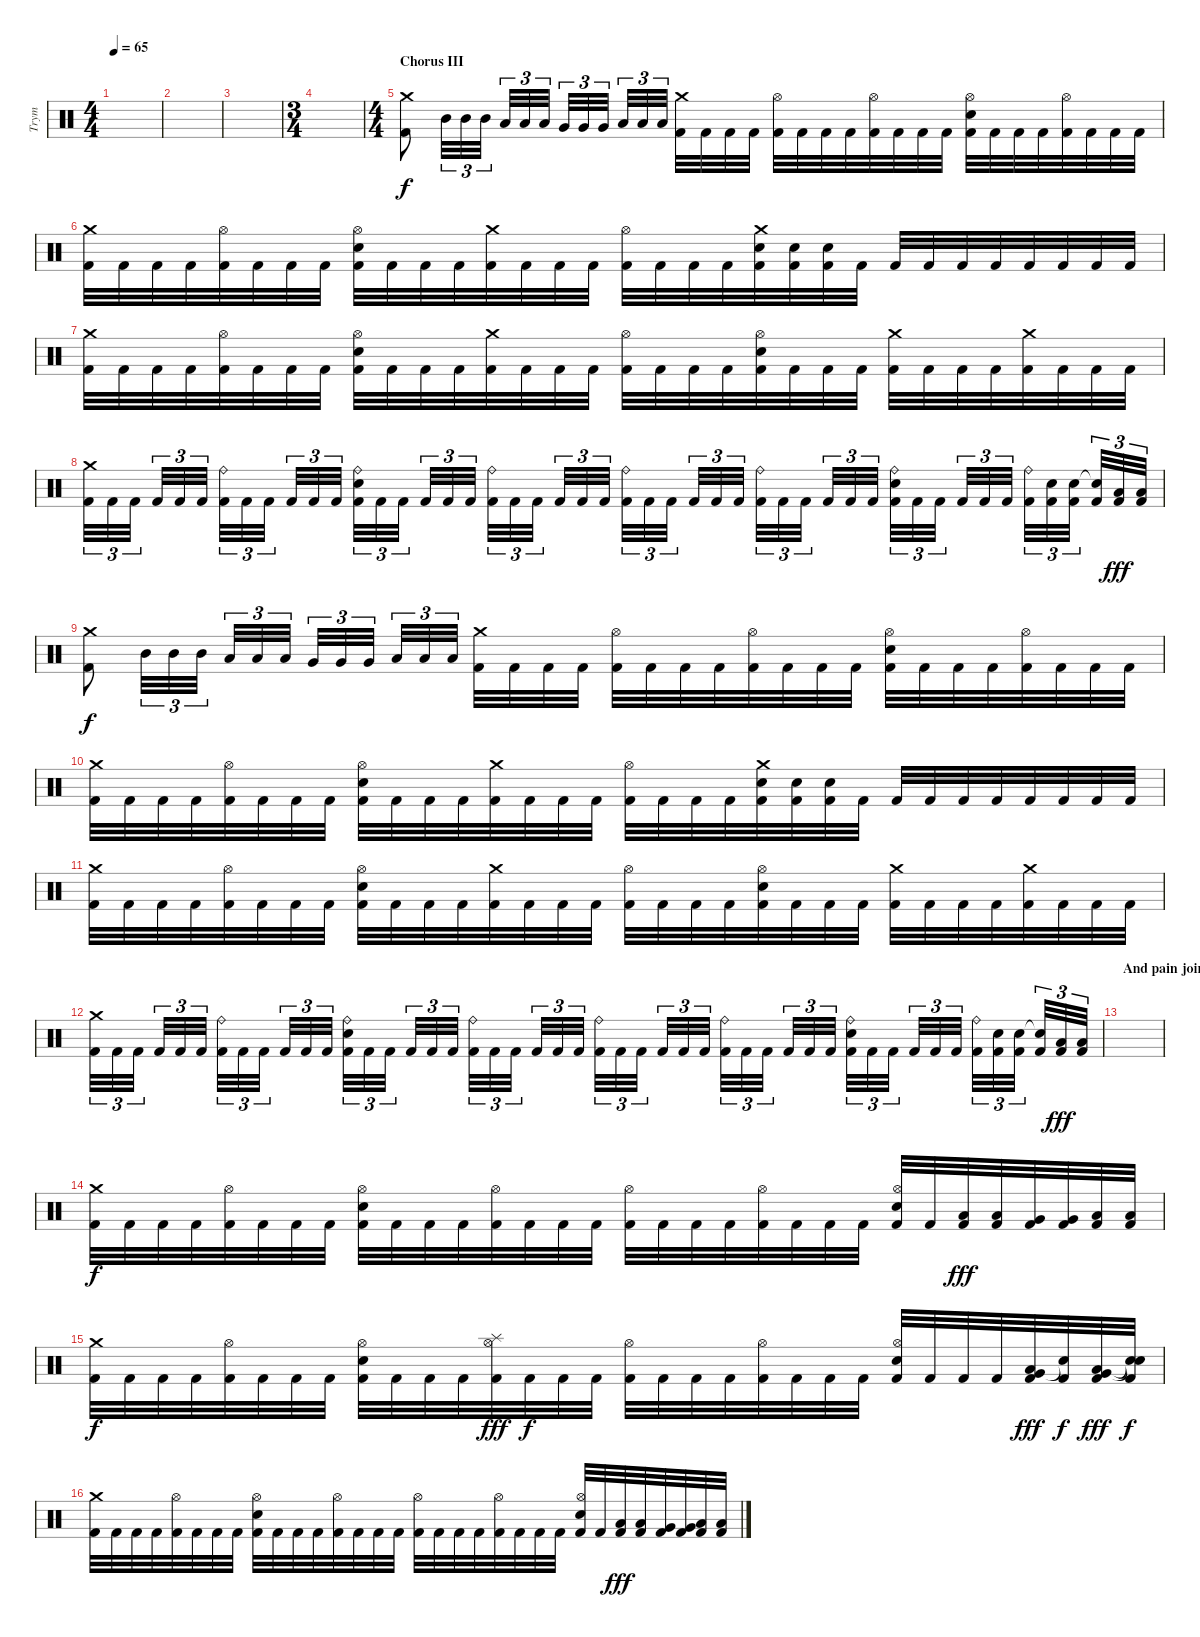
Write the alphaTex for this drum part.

\track ("Trym" "Trym") {instrument percussion}
\staff {score}
\articulation defaults
\ts (4 4)
\tempo 65
\clef neutral
\ks c
|
|
|
\ts (3 4)
|
\ts (4 4)
\section ("" "Chorus III")
("Crash medium (hit)" "Kick (hit) 2").8 "Mid Tom (hit)".32{tu (3 2)} "Mid Tom (hit)".32{tu (3 2)} "Mid Tom (hit)".32{tu (3 2)} "Low Tom (hit)".32{tu (3 2)} "Low Tom (hit)".32{tu (3 2)} "Low Tom (hit)".32{tu (3 2)} "Very Low Tom (hit)".32{tu (3 2)} "Very Low Tom (hit)".32{tu (3 2)} "Very Low Tom (hit)".32{tu (3 2)} "Low Floor Tom (hit)".32{tu (3 2)} "Low Floor Tom (hit)".32{tu (3 2)} "Low Floor Tom (hit)".32{tu (3 2)} ("Crash medium (hit)" "Kick (hit) 2").32 "Kick (hit) 2".32 "Kick (hit) 2".32 "Kick (hit) 2".32 ("Hi-Hat (open)" "Kick (hit) 2").32 "Kick (hit) 2".32 "Kick (hit) 2".32 "Kick (hit) 2".32 ("Hi-Hat (open)" "Kick (hit) 2").32 "Kick (hit) 2".32 "Kick (hit) 2".32 "Kick (hit) 2".32 ("Hi-Hat (open)" "Electric Snare (hit)" "Kick (hit) 2").32 "Kick (hit) 2".32 "Kick (hit) 2".32 "Kick (hit) 2".32 ("Hi-Hat (open)" "Kick (hit) 2").32 "Kick (hit) 2".32 "Kick (hit) 2".32 "Kick (hit) 2".32 |
("Crash medium (hit)" "Kick (hit) 2").32 "Kick (hit) 2".32 "Kick (hit) 2".32 "Kick (hit) 2".32 ("Hi-Hat (open)" "Kick (hit) 2").32 "Kick (hit) 2".32 "Kick (hit) 2".32 "Kick (hit) 2".32 ("Hi-Hat (open)" "Electric Snare (hit)" "Kick (hit) 2").32 "Kick (hit) 2".32 "Kick (hit) 2".32 "Kick (hit) 2".32 ("Crash medium (hit)" "Kick (hit) 2").32 "Kick (hit) 2".32 "Kick (hit) 2".32 "Kick (hit) 2".32 ("Hi-Hat (open)" "Kick (hit) 2").32 "Kick (hit) 2".32 "Kick (hit) 2".32 "Kick (hit) 2".32 ("Crash medium (hit)" "Electric Snare (hit)" "Kick (hit) 2").32 ("Electric Snare (hit)" "Kick (hit) 2").32 ("Electric Snare (hit)" "Kick (hit) 2").32 "Kick (hit) 2".32 "Kick (hit) 2".32 "Kick (hit) 2".32 "Kick (hit) 2".32 "Kick (hit) 2".32 "Kick (hit) 2".32 "Kick (hit) 2".32 "Kick (hit) 2".32 "Kick (hit) 2".32 |
("Crash medium (hit)" "Kick (hit) 2").32 "Kick (hit) 2".32 "Kick (hit) 2".32 "Kick (hit) 2".32 ("Hi-Hat (open)" "Kick (hit) 2").32 "Kick (hit) 2".32 "Kick (hit) 2".32 "Kick (hit) 2".32 ("Hi-Hat (open)" "Electric Snare (hit)" "Kick (hit) 2").32 "Kick (hit) 2".32 "Kick (hit) 2".32 "Kick (hit) 2".32 ("Crash medium (hit)" "Kick (hit) 2").32 "Kick (hit) 2".32 "Kick (hit) 2".32 "Kick (hit) 2".32 ("Hi-Hat (open)" "Kick (hit) 2").32 "Kick (hit) 2".32 "Kick (hit) 2".32 "Kick (hit) 2".32 ("Hi-Hat (open)" "Electric Snare (hit)" "Kick (hit) 2").32 "Kick (hit) 2".32 "Kick (hit) 2".32 "Kick (hit) 2".32 ("Crash medium (hit)" "Kick (hit) 2").32 "Kick (hit) 2".32 "Kick (hit) 2".32 "Kick (hit) 2".32 ("Crash medium (hit)" "Kick (hit) 2").32 "Kick (hit) 2".32 "Kick (hit) 2".32 "Kick (hit) 2".32 |
("Crash medium (hit)" "Kick (hit) 2").32{tu (3 2)} "Kick (hit) 2".32{tu (3 2)} "Kick (hit) 2".32{tu (3 2)} "Kick (hit) 2".32{tu (3 2)} "Kick (hit) 2".32{tu (3 2)} "Kick (hit) 2".32{tu (3 2)} ("Ride (bell)" "Kick (hit) 2").32{tu (3 2)} "Kick (hit) 2".32{tu (3 2)} "Kick (hit) 2".32{tu (3 2)} "Kick (hit) 2".32{tu (3 2)} "Kick (hit) 2".32{tu (3 2)} "Kick (hit) 2".32{tu (3 2)} ("Ride (bell)" "Electric Snare (hit)" "Kick (hit) 2").32{tu (3 2)} "Kick (hit) 2".32{tu (3 2)} "Kick (hit) 2".32{tu (3 2)} "Kick (hit) 2".32{tu (3 2)} "Kick (hit) 2".32{tu (3 2)} "Kick (hit) 2".32{tu (3 2)} ("Ride (bell)" "Kick (hit) 2").32{tu (3 2)} "Kick (hit) 2".32{tu (3 2)} "Kick (hit) 2".32{tu (3 2)} "Kick (hit) 2".32{tu (3 2)} "Kick (hit) 2".32{tu (3 2)} "Kick (hit) 2".32{tu (3 2)} ("Ride (bell)" "Kick (hit) 2").32{tu (3 2)} "Kick (hit) 2".32{tu (3 2)} "Kick (hit) 2".32{tu (3 2)} "Kick (hit) 2".32{tu (3 2)} "Kick (hit) 2".32{tu (3 2)} "Kick (hit) 2".32{tu (3 2)} ("Ride (bell)" "Kick (hit) 2").32{tu (3 2)} "Kick (hit) 2".32{tu (3 2)} "Kick (hit) 2".32{tu (3 2)} "Kick (hit) 2".32{tu (3 2)} "Kick (hit) 2".32{tu (3 2)} "Kick (hit) 2".32{tu (3 2)} ("Ride (bell)" "Electric Snare (hit)" "Kick (hit) 2").32{tu (3 2)} "Kick (hit) 2".32{tu (3 2)} "Kick (hit) 2".32{tu (3 2)} "Kick (hit) 2".32{tu (3 2)} "Kick (hit) 2".32{tu (3 2)} "Kick (hit) 2".32{tu (3 2)} ("Ride (bell)" "Kick (hit) 2").32{tu (3 2)} ("Electric Snare (hit)" "Kick (hit) 2").32{tu (3 2)} ("Electric Snare (hit)" "Kick (hit) 2").32{tu (3 2)} ("Electric Snare (hit)"{t} "Kick (hit) 2").32{tu (3 2)} ("Low Tom (hit)" "Kick (hit) 2").32{tu (3 2) dy fff} ("Low Tom (hit)" "Kick (hit) 2").32{tu (3 2)} |
("Crash medium (hit)" "Kick (hit) 2").8{dy f} "Mid Tom (hit)".32{tu (3 2)} "Mid Tom (hit)".32{tu (3 2)} "Mid Tom (hit)".32{tu (3 2)} "Low Tom (hit)".32{tu (3 2)} "Low Tom (hit)".32{tu (3 2)} "Low Tom (hit)".32{tu (3 2)} "Very Low Tom (hit)".32{tu (3 2)} "Very Low Tom (hit)".32{tu (3 2)} "Very Low Tom (hit)".32{tu (3 2)} "Low Floor Tom (hit)".32{tu (3 2)} "Low Floor Tom (hit)".32{tu (3 2)} "Low Floor Tom (hit)".32{tu (3 2)} ("Crash medium (hit)" "Kick (hit) 2").32 "Kick (hit) 2".32 "Kick (hit) 2".32 "Kick (hit) 2".32 ("Hi-Hat (open)" "Kick (hit) 2").32 "Kick (hit) 2".32 "Kick (hit) 2".32 "Kick (hit) 2".32 ("Hi-Hat (open)" "Kick (hit) 2").32 "Kick (hit) 2".32 "Kick (hit) 2".32 "Kick (hit) 2".32 ("Hi-Hat (open)" "Electric Snare (hit)" "Kick (hit) 2").32 "Kick (hit) 2".32 "Kick (hit) 2".32 "Kick (hit) 2".32 ("Hi-Hat (open)" "Kick (hit) 2").32 "Kick (hit) 2".32 "Kick (hit) 2".32 "Kick (hit) 2".32 |
("Crash medium (hit)" "Kick (hit) 2").32 "Kick (hit) 2".32 "Kick (hit) 2".32 "Kick (hit) 2".32 ("Hi-Hat (open)" "Kick (hit) 2").32 "Kick (hit) 2".32 "Kick (hit) 2".32 "Kick (hit) 2".32 ("Hi-Hat (open)" "Electric Snare (hit)" "Kick (hit) 2").32 "Kick (hit) 2".32 "Kick (hit) 2".32 "Kick (hit) 2".32 ("Crash medium (hit)" "Kick (hit) 2").32 "Kick (hit) 2".32 "Kick (hit) 2".32 "Kick (hit) 2".32 ("Hi-Hat (open)" "Kick (hit) 2").32 "Kick (hit) 2".32 "Kick (hit) 2".32 "Kick (hit) 2".32 ("Crash medium (hit)" "Electric Snare (hit)" "Kick (hit) 2").32 ("Electric Snare (hit)" "Kick (hit) 2").32 ("Electric Snare (hit)" "Kick (hit) 2").32 "Kick (hit) 2".32 "Kick (hit) 2".32 "Kick (hit) 2".32 "Kick (hit) 2".32 "Kick (hit) 2".32 "Kick (hit) 2".32 "Kick (hit) 2".32 "Kick (hit) 2".32 "Kick (hit) 2".32 |
("Crash medium (hit)" "Kick (hit) 2").32 "Kick (hit) 2".32 "Kick (hit) 2".32 "Kick (hit) 2".32 ("Hi-Hat (open)" "Kick (hit) 2").32 "Kick (hit) 2".32 "Kick (hit) 2".32 "Kick (hit) 2".32 ("Hi-Hat (open)" "Electric Snare (hit)" "Kick (hit) 2").32 "Kick (hit) 2".32 "Kick (hit) 2".32 "Kick (hit) 2".32 ("Crash medium (hit)" "Kick (hit) 2").32 "Kick (hit) 2".32 "Kick (hit) 2".32 "Kick (hit) 2".32 ("Hi-Hat (open)" "Kick (hit) 2").32 "Kick (hit) 2".32 "Kick (hit) 2".32 "Kick (hit) 2".32 ("Hi-Hat (open)" "Electric Snare (hit)" "Kick (hit) 2").32 "Kick (hit) 2".32 "Kick (hit) 2".32 "Kick (hit) 2".32 ("Crash medium (hit)" "Kick (hit) 2").32 "Kick (hit) 2".32 "Kick (hit) 2".32 "Kick (hit) 2".32 ("Crash medium (hit)" "Kick (hit) 2").32 "Kick (hit) 2".32 "Kick (hit) 2".32 "Kick (hit) 2".32 |
("Crash medium (hit)" "Kick (hit) 2").32{tu (3 2)} "Kick (hit) 2".32{tu (3 2)} "Kick (hit) 2".32{tu (3 2)} "Kick (hit) 2".32{tu (3 2)} "Kick (hit) 2".32{tu (3 2)} "Kick (hit) 2".32{tu (3 2)} ("Ride (bell)" "Kick (hit) 2").32{tu (3 2)} "Kick (hit) 2".32{tu (3 2)} "Kick (hit) 2".32{tu (3 2)} "Kick (hit) 2".32{tu (3 2)} "Kick (hit) 2".32{tu (3 2)} "Kick (hit) 2".32{tu (3 2)} ("Ride (bell)" "Electric Snare (hit)" "Kick (hit) 2").32{tu (3 2)} "Kick (hit) 2".32{tu (3 2)} "Kick (hit) 2".32{tu (3 2)} "Kick (hit) 2".32{tu (3 2)} "Kick (hit) 2".32{tu (3 2)} "Kick (hit) 2".32{tu (3 2)} ("Ride (bell)" "Kick (hit) 2").32{tu (3 2)} "Kick (hit) 2".32{tu (3 2)} "Kick (hit) 2".32{tu (3 2)} "Kick (hit) 2".32{tu (3 2)} "Kick (hit) 2".32{tu (3 2)} "Kick (hit) 2".32{tu (3 2)} ("Ride (bell)" "Kick (hit) 2").32{tu (3 2)} "Kick (hit) 2".32{tu (3 2)} "Kick (hit) 2".32{tu (3 2)} "Kick (hit) 2".32{tu (3 2)} "Kick (hit) 2".32{tu (3 2)} "Kick (hit) 2".32{tu (3 2)} ("Ride (bell)" "Kick (hit) 2").32{tu (3 2)} "Kick (hit) 2".32{tu (3 2)} "Kick (hit) 2".32{tu (3 2)} "Kick (hit) 2".32{tu (3 2)} "Kick (hit) 2".32{tu (3 2)} "Kick (hit) 2".32{tu (3 2)} ("Ride (bell)" "Electric Snare (hit)" "Kick (hit) 2").32{tu (3 2)} "Kick (hit) 2".32{tu (3 2)} "Kick (hit) 2".32{tu (3 2)} "Kick (hit) 2".32{tu (3 2)} "Kick (hit) 2".32{tu (3 2)} "Kick (hit) 2".32{tu (3 2)} ("Ride (bell)" "Kick (hit) 2").32{tu (3 2)} ("Electric Snare (hit)" "Kick (hit) 2").32{tu (3 2)} ("Electric Snare (hit)" "Kick (hit) 2").32{tu (3 2)} ("Electric Snare (hit)"{t} "Kick (hit) 2").32{tu (3 2)} ("Low Tom (hit)" "Kick (hit) 2").32{tu (3 2) dy fff} ("Low Tom (hit)" "Kick (hit) 2").32{tu (3 2)} |
\section ("" "And pain joined his urge to percieve...")
|
("Crash medium (hit)" "Kick (hit) 2").32{dy f} "Kick (hit) 2".32 "Kick (hit) 2".32 "Kick (hit) 2".32 ("Hi-Hat (open)" "Kick (hit) 2").32 "Kick (hit) 2".32 "Kick (hit) 2".32 "Kick (hit) 2".32 ("Hi-Hat (open)" "Electric Snare (hit)" "Kick (hit) 2").32 "Kick (hit) 2".32 "Kick (hit) 2".32 "Kick (hit) 2".32 ("Hi-Hat (open)" "Kick (hit) 2").32 "Kick (hit) 2".32 "Kick (hit) 2".32 "Kick (hit) 2".32 ("Hi-Hat (open)" "Kick (hit) 2").32 "Kick (hit) 2".32 "Kick (hit) 2".32 "Kick (hit) 2".32 ("Hi-Hat (open)" "Kick (hit) 2").32 "Kick (hit) 2".32 "Kick (hit) 2".32 "Kick (hit) 2".32 ("Hi-Hat (open)" "Electric Snare (hit)" "Kick (hit) 2").32 "Kick (hit) 2".32 ("Low Tom (hit)" "Kick (hit) 2").32{dy fff} ("Low Tom (hit)" "Kick (hit) 2").32 ("Very Low Tom (hit)" "Kick (hit) 2").32 ("Very Low Tom (hit)" "Kick (hit) 2").32 ("Low Floor Tom (hit)" "Kick (hit) 2").32 ("Low Floor Tom (hit)" "Kick (hit) 2").32 |
("Crash medium (hit)" "Kick (hit) 2").32{dy f} "Kick (hit) 2".32 "Kick (hit) 2".32 "Kick (hit) 2".32 ("Hi-Hat (open)" "Kick (hit) 2").32 "Kick (hit) 2".32 "Kick (hit) 2".32 "Kick (hit) 2".32 ("Hi-Hat (open)" "Electric Snare (hit)" "Kick (hit) 2").32 "Kick (hit) 2".32 "Kick (hit) 2".32 "Kick (hit) 2".32 ("Splash (hit)" "Hi-Hat (open)" "Kick (hit) 2").32{dy fff} "Kick (hit) 2".32{dy f} "Kick (hit) 2".32 "Kick (hit) 2".32 ("Hi-Hat (open)" "Kick (hit) 2").32 "Kick (hit) 2".32 "Kick (hit) 2".32 "Kick (hit) 2".32 ("Hi-Hat (open)" "Kick (hit) 2").32 "Kick (hit) 2".32 "Kick (hit) 2".32 "Kick (hit) 2".32 ("Hi-Hat (open)" "Electric Snare (hit)" "Kick (hit) 2").32 "Kick (hit) 2".32 "Kick (hit) 2".32 "Kick (hit) 2".32 ("Very Low Tom (hit)" "Low Tom (hit)" "Kick (hit) 2").32{dy fff} ("Snare (hit)"{t} "Kick (hit) 2").32{dy f} ("Very Low Tom (hit)" "Low Tom (hit)" "Kick (hit) 2").32{dy fff} ("Snare (hit)"{t} "Snare (hit)"{t} "Kick (hit) 2").32{dy f} |
("Crash medium (hit)" "Kick (hit) 2").32 "Kick (hit) 2".32 "Kick (hit) 2".32 "Kick (hit) 2".32 ("Hi-Hat (open)" "Kick (hit) 2").32 "Kick (hit) 2".32 "Kick (hit) 2".32 "Kick (hit) 2".32 ("Hi-Hat (open)" "Electric Snare (hit)" "Kick (hit) 2").32 "Kick (hit) 2".32 "Kick (hit) 2".32 "Kick (hit) 2".32 ("Hi-Hat (open)" "Kick (hit) 2").32 "Kick (hit) 2".32 "Kick (hit) 2".32 "Kick (hit) 2".32 ("Hi-Hat (open)" "Kick (hit) 2").32 "Kick (hit) 2".32 "Kick (hit) 2".32 "Kick (hit) 2".32 ("Hi-Hat (open)" "Kick (hit) 2").32 "Kick (hit) 2".32 "Kick (hit) 2".32 "Kick (hit) 2".32 ("Hi-Hat (open)" "Electric Snare (hit)" "Kick (hit) 2").32 "Kick (hit) 2".32 ("Low Tom (hit)" "Kick (hit) 2").32{dy fff} ("Low Tom (hit)" "Kick (hit) 2").32 ("Very Low Tom (hit)" "Kick (hit) 2").32 ("Very Low Tom (hit)" "Kick (hit) 2").32 ("Low Floor Tom (hit)" "Kick (hit) 2").32 ("Low Floor Tom (hit)" "Kick (hit) 2").32
